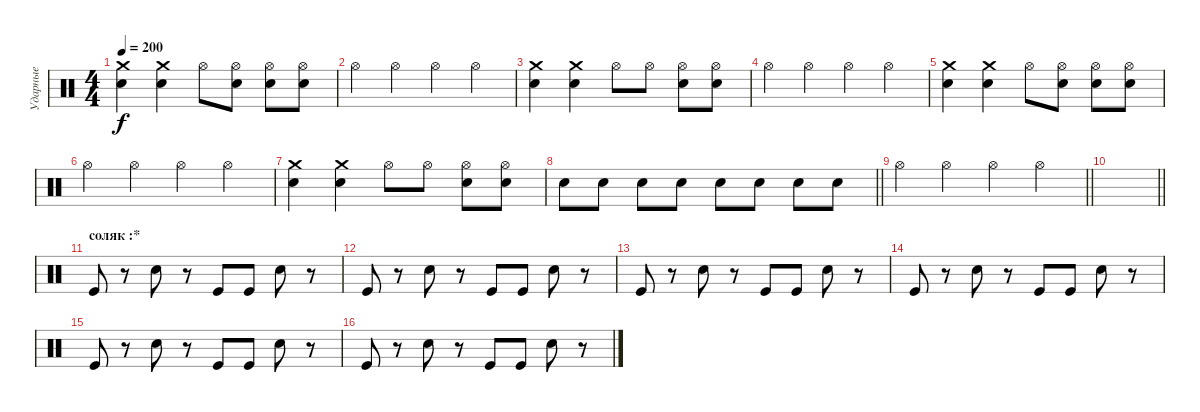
\track ("Ударные" "Ударные") {instrument percussion}
\staff {score}
\articulation defaults
\ts (4 4)
\tempo 200
\clef neutral
\ks c
("Crash medium (hit)" "Snare (hit) 2").4{dy f} ("Crash medium (hit)" "Snare (hit) 2").4 "Hi-Hat (open)".8 ("Hi-Hat (open)" "Snare (hit) 2").8 ("Hi-Hat (open)" "Snare (hit) 2").8 ("Hi-Hat (open)" "Snare (hit) 2").8 |
"Hi-Hat (open)".4 "Hi-Hat (open)".4 "Hi-Hat (open)".4 "Hi-Hat (open)".4 |
("Crash medium (hit)" "Snare (hit) 2").4 ("Crash medium (hit)" "Snare (hit) 2").4 "Hi-Hat (open)".8 "Hi-Hat (open)".8 ("Hi-Hat (open)" "Snare (hit) 2").8 ("Hi-Hat (open)" "Snare (hit) 2").8 |
"Hi-Hat (open)".4 "Hi-Hat (open)".4 "Hi-Hat (open)".4 "Hi-Hat (open)".4 |
("Crash medium (hit)" "Snare (hit) 2").4 ("Crash medium (hit)" "Snare (hit) 2").4 "Hi-Hat (open)".8 ("Hi-Hat (open)" "Snare (hit) 2").8 ("Hi-Hat (open)" "Snare (hit) 2").8 ("Hi-Hat (open)" "Snare (hit) 2").8 |
"Hi-Hat (open)".4 "Hi-Hat (open)".4 "Hi-Hat (open)".4 "Hi-Hat (open)".4 |
("Crash medium (hit)" "Snare (hit) 2").4 ("Crash medium (hit)" "Snare (hit) 2").4 "Hi-Hat (open)".8 "Hi-Hat (open)".8 ("Hi-Hat (open)" "Snare (hit) 2").8 ("Hi-Hat (open)" "Snare (hit) 2").8 |
\barLineRight lightlight "Snare (hit) 2".8 "Snare (hit) 2".8 "Snare (hit) 2".8 "Snare (hit) 2".8 "Snare (hit) 2".8 "Snare (hit) 2".8 "Snare (hit) 2".8 "Snare (hit) 2".8
|
\barLineRight lightlight "Hi-Hat (open)".4 "Hi-Hat (open)".4 "Hi-Hat (open)".4 "Hi-Hat (open)".4
|
\barLineRight lightlight
|
\section ("" "соляк :*")
"Kick (hit)".8 r.8 "Snare (hit) 2".8 r.8 "Kick (hit)".8 "Kick (hit)".8 "Snare (hit) 2".8 r.8 |
"Kick (hit)".8 r.8 "Snare (hit) 2".8 r.8 "Kick (hit)".8 "Kick (hit)".8 "Snare (hit) 2".8 r.8 |
"Kick (hit)".8 r.8 "Snare (hit) 2".8 r.8 "Kick (hit)".8 "Kick (hit)".8 "Snare (hit) 2".8 r.8 |
"Kick (hit)".8 r.8 "Snare (hit) 2".8 r.8 "Kick (hit)".8 "Kick (hit)".8 "Snare (hit) 2".8 r.8 |
"Kick (hit)".8 r.8 "Snare (hit) 2".8 r.8 "Kick (hit)".8 "Kick (hit)".8 "Snare (hit) 2".8 r.8 |
"Kick (hit)".8 r.8 "Snare (hit) 2".8 r.8 "Kick (hit)".8 "Kick (hit)".8 "Snare (hit) 2".8 r.8
